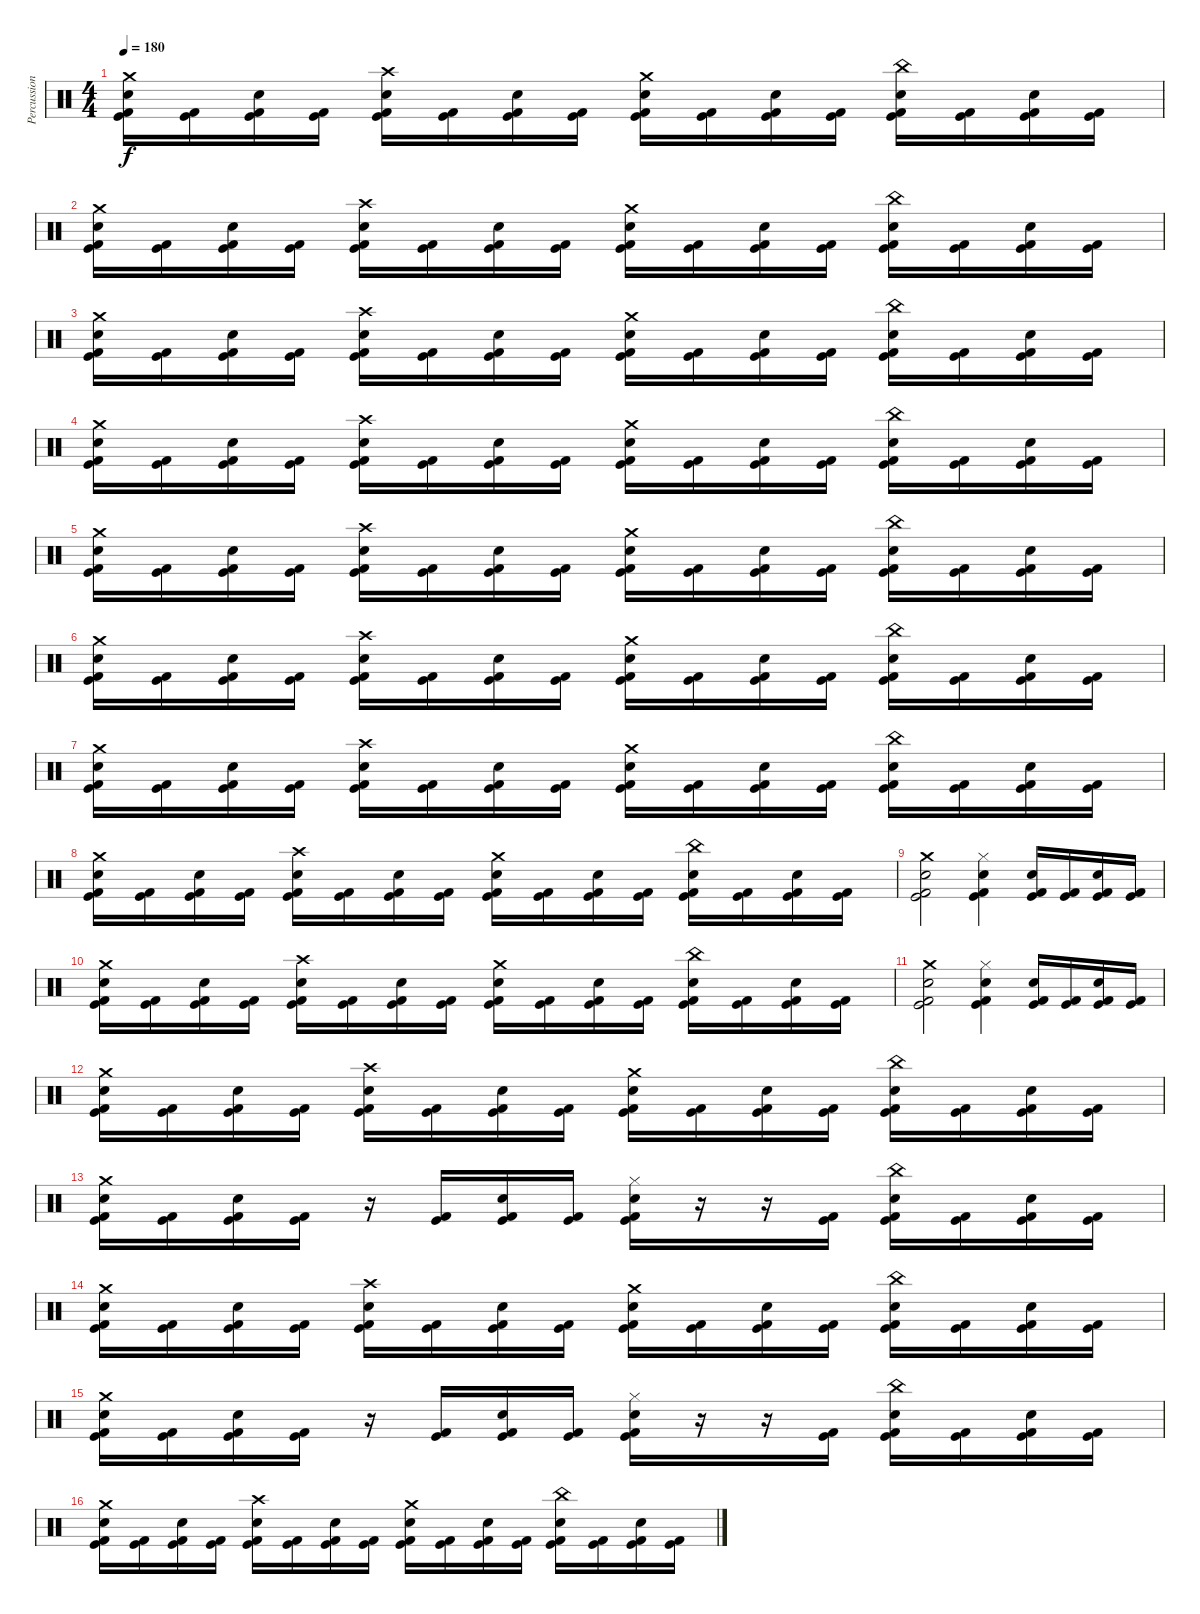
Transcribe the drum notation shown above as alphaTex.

\track ("Percussion" "Percussion") {instrument percussion}
\staff {score}
\articulation defaults
\ts (4 4)
\tempo 180
\clef neutral
\ks c
("Crash medium (hit)" "Electric Snare (hit)" "Kick (hit)" "Kick (hit) 2").16{dy f} ("Kick (hit)" "Kick (hit) 2").16 ("Electric Snare (hit)" "Kick (hit)" "Kick (hit) 2").16 ("Kick (hit)" "Kick (hit) 2").16 ("Crash high (hit)" "Electric Snare (hit)" "Kick (hit)" "Kick (hit) 2").16 ("Kick (hit)" "Kick (hit) 2").16 ("Electric Snare (hit)" "Kick (hit)" "Kick (hit) 2").16 ("Kick (hit)" "Kick (hit) 2").16 ("Crash medium (hit)" "Electric Snare (hit)" "Kick (hit)" "Kick (hit) 2").16 ("Kick (hit)" "Kick (hit) 2").16 ("Electric Snare (hit)" "Kick (hit)" "Kick (hit) 2").16 ("Kick (hit)" "Kick (hit) 2").16 ("China (hit)" "Electric Snare (hit)" "Kick (hit)" "Kick (hit) 2").16 ("Kick (hit)" "Kick (hit) 2").16 ("Electric Snare (hit)" "Kick (hit)" "Kick (hit) 2").16 ("Kick (hit)" "Kick (hit) 2").16 |
("Crash medium (hit)" "Electric Snare (hit)" "Kick (hit)" "Kick (hit) 2").16 ("Kick (hit)" "Kick (hit) 2").16 ("Electric Snare (hit)" "Kick (hit)" "Kick (hit) 2").16 ("Kick (hit)" "Kick (hit) 2").16 ("Crash high (hit)" "Electric Snare (hit)" "Kick (hit)" "Kick (hit) 2").16 ("Kick (hit)" "Kick (hit) 2").16 ("Electric Snare (hit)" "Kick (hit)" "Kick (hit) 2").16 ("Kick (hit)" "Kick (hit) 2").16 ("Crash medium (hit)" "Electric Snare (hit)" "Kick (hit)" "Kick (hit) 2").16 ("Kick (hit)" "Kick (hit) 2").16 ("Electric Snare (hit)" "Kick (hit)" "Kick (hit) 2").16 ("Kick (hit)" "Kick (hit) 2").16 ("China (hit)" "Electric Snare (hit)" "Kick (hit)" "Kick (hit) 2").16 ("Kick (hit)" "Kick (hit) 2").16 ("Electric Snare (hit)" "Kick (hit)" "Kick (hit) 2").16 ("Kick (hit)" "Kick (hit) 2").16 |
("Crash medium (hit)" "Electric Snare (hit)" "Kick (hit)" "Kick (hit) 2").16 ("Kick (hit)" "Kick (hit) 2").16 ("Electric Snare (hit)" "Kick (hit)" "Kick (hit) 2").16 ("Kick (hit)" "Kick (hit) 2").16 ("Crash high (hit)" "Electric Snare (hit)" "Kick (hit)" "Kick (hit) 2").16 ("Kick (hit)" "Kick (hit) 2").16 ("Electric Snare (hit)" "Kick (hit)" "Kick (hit) 2").16 ("Kick (hit)" "Kick (hit) 2").16 ("Crash medium (hit)" "Electric Snare (hit)" "Kick (hit)" "Kick (hit) 2").16 ("Kick (hit)" "Kick (hit) 2").16 ("Electric Snare (hit)" "Kick (hit)" "Kick (hit) 2").16 ("Kick (hit)" "Kick (hit) 2").16 ("China (hit)" "Electric Snare (hit)" "Kick (hit)" "Kick (hit) 2").16 ("Kick (hit)" "Kick (hit) 2").16 ("Electric Snare (hit)" "Kick (hit)" "Kick (hit) 2").16 ("Kick (hit)" "Kick (hit) 2").16 |
("Crash medium (hit)" "Electric Snare (hit)" "Kick (hit)" "Kick (hit) 2").16 ("Kick (hit)" "Kick (hit) 2").16 ("Electric Snare (hit)" "Kick (hit)" "Kick (hit) 2").16 ("Kick (hit)" "Kick (hit) 2").16 ("Crash high (hit)" "Electric Snare (hit)" "Kick (hit)" "Kick (hit) 2").16 ("Kick (hit)" "Kick (hit) 2").16 ("Electric Snare (hit)" "Kick (hit)" "Kick (hit) 2").16 ("Kick (hit)" "Kick (hit) 2").16 ("Crash medium (hit)" "Electric Snare (hit)" "Kick (hit)" "Kick (hit) 2").16 ("Kick (hit)" "Kick (hit) 2").16 ("Electric Snare (hit)" "Kick (hit)" "Kick (hit) 2").16 ("Kick (hit)" "Kick (hit) 2").16 ("China (hit)" "Electric Snare (hit)" "Kick (hit)" "Kick (hit) 2").16 ("Kick (hit)" "Kick (hit) 2").16 ("Electric Snare (hit)" "Kick (hit)" "Kick (hit) 2").16 ("Kick (hit)" "Kick (hit) 2").16 |
("Crash medium (hit)" "Electric Snare (hit)" "Kick (hit)" "Kick (hit) 2").16 ("Kick (hit)" "Kick (hit) 2").16 ("Electric Snare (hit)" "Kick (hit)" "Kick (hit) 2").16 ("Kick (hit)" "Kick (hit) 2").16 ("Crash high (hit)" "Electric Snare (hit)" "Kick (hit)" "Kick (hit) 2").16 ("Kick (hit)" "Kick (hit) 2").16 ("Electric Snare (hit)" "Kick (hit)" "Kick (hit) 2").16 ("Kick (hit)" "Kick (hit) 2").16 ("Crash medium (hit)" "Electric Snare (hit)" "Kick (hit)" "Kick (hit) 2").16 ("Kick (hit)" "Kick (hit) 2").16 ("Electric Snare (hit)" "Kick (hit)" "Kick (hit) 2").16 ("Kick (hit)" "Kick (hit) 2").16 ("China (hit)" "Electric Snare (hit)" "Kick (hit)" "Kick (hit) 2").16 ("Kick (hit)" "Kick (hit) 2").16 ("Electric Snare (hit)" "Kick (hit)" "Kick (hit) 2").16 ("Kick (hit)" "Kick (hit) 2").16 |
("Crash medium (hit)" "Electric Snare (hit)" "Kick (hit)" "Kick (hit) 2").16 ("Kick (hit)" "Kick (hit) 2").16 ("Electric Snare (hit)" "Kick (hit)" "Kick (hit) 2").16 ("Kick (hit)" "Kick (hit) 2").16 ("Crash high (hit)" "Electric Snare (hit)" "Kick (hit)" "Kick (hit) 2").16 ("Kick (hit)" "Kick (hit) 2").16 ("Electric Snare (hit)" "Kick (hit)" "Kick (hit) 2").16 ("Kick (hit)" "Kick (hit) 2").16 ("Crash medium (hit)" "Electric Snare (hit)" "Kick (hit)" "Kick (hit) 2").16 ("Kick (hit)" "Kick (hit) 2").16 ("Electric Snare (hit)" "Kick (hit)" "Kick (hit) 2").16 ("Kick (hit)" "Kick (hit) 2").16 ("China (hit)" "Electric Snare (hit)" "Kick (hit)" "Kick (hit) 2").16 ("Kick (hit)" "Kick (hit) 2").16 ("Electric Snare (hit)" "Kick (hit)" "Kick (hit) 2").16 ("Kick (hit)" "Kick (hit) 2").16 |
("Crash medium (hit)" "Electric Snare (hit)" "Kick (hit)" "Kick (hit) 2").16 ("Kick (hit)" "Kick (hit) 2").16 ("Electric Snare (hit)" "Kick (hit)" "Kick (hit) 2").16 ("Kick (hit)" "Kick (hit) 2").16 ("Crash high (hit)" "Electric Snare (hit)" "Kick (hit)" "Kick (hit) 2").16 ("Kick (hit)" "Kick (hit) 2").16 ("Electric Snare (hit)" "Kick (hit)" "Kick (hit) 2").16 ("Kick (hit)" "Kick (hit) 2").16 ("Crash medium (hit)" "Electric Snare (hit)" "Kick (hit)" "Kick (hit) 2").16 ("Kick (hit)" "Kick (hit) 2").16 ("Electric Snare (hit)" "Kick (hit)" "Kick (hit) 2").16 ("Kick (hit)" "Kick (hit) 2").16 ("China (hit)" "Electric Snare (hit)" "Kick (hit)" "Kick (hit) 2").16 ("Kick (hit)" "Kick (hit) 2").16 ("Electric Snare (hit)" "Kick (hit)" "Kick (hit) 2").16 ("Kick (hit)" "Kick (hit) 2").16 |
("Crash medium (hit)" "Electric Snare (hit)" "Kick (hit)" "Kick (hit) 2").16 ("Kick (hit)" "Kick (hit) 2").16 ("Electric Snare (hit)" "Kick (hit)" "Kick (hit) 2").16 ("Kick (hit)" "Kick (hit) 2").16 ("Crash high (hit)" "Electric Snare (hit)" "Kick (hit)" "Kick (hit) 2").16 ("Kick (hit)" "Kick (hit) 2").16 ("Electric Snare (hit)" "Kick (hit)" "Kick (hit) 2").16 ("Kick (hit)" "Kick (hit) 2").16 ("Crash medium (hit)" "Electric Snare (hit)" "Kick (hit)" "Kick (hit) 2").16 ("Kick (hit)" "Kick (hit) 2").16 ("Electric Snare (hit)" "Kick (hit)" "Kick (hit) 2").16 ("Kick (hit)" "Kick (hit) 2").16 ("China (hit)" "Electric Snare (hit)" "Kick (hit)" "Kick (hit) 2").16 ("Kick (hit)" "Kick (hit) 2").16 ("Electric Snare (hit)" "Kick (hit)" "Kick (hit) 2").16 ("Kick (hit)" "Kick (hit) 2").16 |
("Crash medium (hit)" "Electric Snare (hit)" "Kick (hit)" "Kick (hit) 2").2 ("Hi-Hat (closed)" "Electric Snare (hit)" "Kick (hit)" "Kick (hit) 2").4 ("Electric Snare (hit)" "Kick (hit)" "Kick (hit) 2").16 ("Kick (hit)" "Kick (hit) 2").16 ("Electric Snare (hit)" "Kick (hit)" "Kick (hit) 2").16 ("Kick (hit)" "Kick (hit) 2").16 |
("Crash medium (hit)" "Electric Snare (hit)" "Kick (hit)" "Kick (hit) 2").16 ("Kick (hit)" "Kick (hit) 2").16 ("Electric Snare (hit)" "Kick (hit)" "Kick (hit) 2").16 ("Kick (hit)" "Kick (hit) 2").16 ("Crash high (hit)" "Electric Snare (hit)" "Kick (hit)" "Kick (hit) 2").16 ("Kick (hit)" "Kick (hit) 2").16 ("Electric Snare (hit)" "Kick (hit)" "Kick (hit) 2").16 ("Kick (hit)" "Kick (hit) 2").16 ("Crash medium (hit)" "Electric Snare (hit)" "Kick (hit)" "Kick (hit) 2").16 ("Kick (hit)" "Kick (hit) 2").16 ("Electric Snare (hit)" "Kick (hit)" "Kick (hit) 2").16 ("Kick (hit)" "Kick (hit) 2").16 ("China (hit)" "Electric Snare (hit)" "Kick (hit)" "Kick (hit) 2").16 ("Kick (hit)" "Kick (hit) 2").16 ("Electric Snare (hit)" "Kick (hit)" "Kick (hit) 2").16 ("Kick (hit)" "Kick (hit) 2").16 |
("Crash medium (hit)" "Electric Snare (hit)" "Kick (hit)" "Kick (hit) 2").2 ("Hi-Hat (closed)" "Electric Snare (hit)" "Kick (hit)" "Kick (hit) 2").4 ("Electric Snare (hit)" "Kick (hit)" "Kick (hit) 2").16 ("Kick (hit)" "Kick (hit) 2").16 ("Electric Snare (hit)" "Kick (hit)" "Kick (hit) 2").16 ("Kick (hit)" "Kick (hit) 2").16 |
("Crash medium (hit)" "Electric Snare (hit)" "Kick (hit)" "Kick (hit) 2").16 ("Kick (hit)" "Kick (hit) 2").16 ("Electric Snare (hit)" "Kick (hit)" "Kick (hit) 2").16 ("Kick (hit)" "Kick (hit) 2").16 ("Crash high (hit)" "Electric Snare (hit)" "Kick (hit)" "Kick (hit) 2").16 ("Kick (hit)" "Kick (hit) 2").16 ("Electric Snare (hit)" "Kick (hit)" "Kick (hit) 2").16 ("Kick (hit)" "Kick (hit) 2").16 ("Crash medium (hit)" "Electric Snare (hit)" "Kick (hit)" "Kick (hit) 2").16 ("Kick (hit)" "Kick (hit) 2").16 ("Electric Snare (hit)" "Kick (hit)" "Kick (hit) 2").16 ("Kick (hit)" "Kick (hit) 2").16 ("China (hit)" "Electric Snare (hit)" "Kick (hit)" "Kick (hit) 2").16 ("Kick (hit)" "Kick (hit) 2").16 ("Electric Snare (hit)" "Kick (hit)" "Kick (hit) 2").16 ("Kick (hit)" "Kick (hit) 2").16 |
("Crash medium (hit)" "Electric Snare (hit)" "Kick (hit)" "Kick (hit) 2").16 ("Kick (hit)" "Kick (hit) 2").16 ("Electric Snare (hit)" "Kick (hit)" "Kick (hit) 2").16 ("Kick (hit)" "Kick (hit) 2").16 r.16 ("Kick (hit)" "Kick (hit) 2").16 ("Electric Snare (hit)" "Kick (hit)" "Kick (hit) 2").16 ("Kick (hit)" "Kick (hit) 2").16 ("Hi-Hat (closed)" "Electric Snare (hit)" "Kick (hit)" "Kick (hit) 2").16 r.16 r.16 ("Kick (hit)" "Kick (hit) 2").16 ("China (hit)" "Electric Snare (hit)" "Kick (hit)" "Kick (hit) 2").16 ("Kick (hit)" "Kick (hit) 2").16 ("Electric Snare (hit)" "Kick (hit)" "Kick (hit) 2").16 ("Kick (hit)" "Kick (hit) 2").16 |
("Crash medium (hit)" "Electric Snare (hit)" "Kick (hit)" "Kick (hit) 2").16 ("Kick (hit)" "Kick (hit) 2").16 ("Electric Snare (hit)" "Kick (hit)" "Kick (hit) 2").16 ("Kick (hit)" "Kick (hit) 2").16 ("Crash high (hit)" "Electric Snare (hit)" "Kick (hit)" "Kick (hit) 2").16 ("Kick (hit)" "Kick (hit) 2").16 ("Electric Snare (hit)" "Kick (hit)" "Kick (hit) 2").16 ("Kick (hit)" "Kick (hit) 2").16 ("Crash medium (hit)" "Electric Snare (hit)" "Kick (hit)" "Kick (hit) 2").16 ("Kick (hit)" "Kick (hit) 2").16 ("Electric Snare (hit)" "Kick (hit)" "Kick (hit) 2").16 ("Kick (hit)" "Kick (hit) 2").16 ("China (hit)" "Electric Snare (hit)" "Kick (hit)" "Kick (hit) 2").16 ("Kick (hit)" "Kick (hit) 2").16 ("Electric Snare (hit)" "Kick (hit)" "Kick (hit) 2").16 ("Kick (hit)" "Kick (hit) 2").16 |
("Crash medium (hit)" "Electric Snare (hit)" "Kick (hit)" "Kick (hit) 2").16 ("Kick (hit)" "Kick (hit) 2").16 ("Electric Snare (hit)" "Kick (hit)" "Kick (hit) 2").16 ("Kick (hit)" "Kick (hit) 2").16 r.16 ("Kick (hit)" "Kick (hit) 2").16 ("Electric Snare (hit)" "Kick (hit)" "Kick (hit) 2").16 ("Kick (hit)" "Kick (hit) 2").16 ("Hi-Hat (closed)" "Electric Snare (hit)" "Kick (hit)" "Kick (hit) 2").16 r.16 r.16 ("Kick (hit)" "Kick (hit) 2").16 ("China (hit)" "Electric Snare (hit)" "Kick (hit)" "Kick (hit) 2").16 ("Kick (hit)" "Kick (hit) 2").16 ("Electric Snare (hit)" "Kick (hit)" "Kick (hit) 2").16 ("Kick (hit)" "Kick (hit) 2").16 |
("Crash medium (hit)" "Electric Snare (hit)" "Kick (hit)" "Kick (hit) 2").16 ("Kick (hit)" "Kick (hit) 2").16 ("Electric Snare (hit)" "Kick (hit)" "Kick (hit) 2").16 ("Kick (hit)" "Kick (hit) 2").16 ("Crash high (hit)" "Electric Snare (hit)" "Kick (hit)" "Kick (hit) 2").16 ("Kick (hit)" "Kick (hit) 2").16 ("Electric Snare (hit)" "Kick (hit)" "Kick (hit) 2").16 ("Kick (hit)" "Kick (hit) 2").16 ("Crash medium (hit)" "Electric Snare (hit)" "Kick (hit)" "Kick (hit) 2").16 ("Kick (hit)" "Kick (hit) 2").16 ("Electric Snare (hit)" "Kick (hit)" "Kick (hit) 2").16 ("Kick (hit)" "Kick (hit) 2").16 ("China (hit)" "Electric Snare (hit)" "Kick (hit)" "Kick (hit) 2").16 ("Kick (hit)" "Kick (hit) 2").16 ("Electric Snare (hit)" "Kick (hit)" "Kick (hit) 2").16 ("Kick (hit)" "Kick (hit) 2").16
